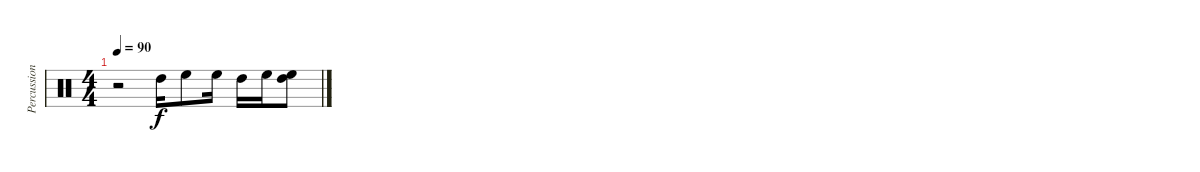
\track ("Percussion" "Percussion") {instrument percussion}
\staff {score}
\articulation defaults
\ts (4 4)
\tempo 90
\clef neutral
\ks c
r.2{dy f} "High Tom (hit)".16 "High Floor Tom (hit)".8 "High Floor Tom (hit)".16 "High Tom (hit)".16 "High Floor Tom (hit)".16 ("High Floor Tom (hit)" "High Tom (hit)").8
